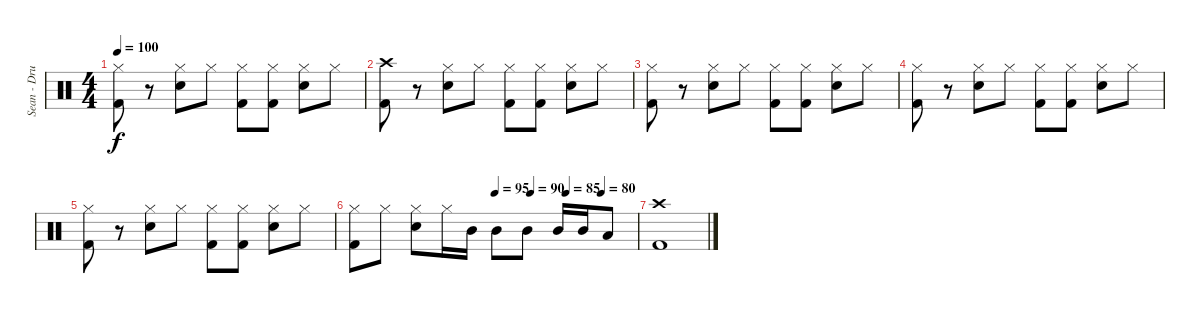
\track ("Sean - Drums" "Sean - Dru") {instrument percussion}
\staff {score}
\articulation defaults
\ts (4 4)
\tempo 100
\clef neutral
\ks c
("Hi-Hat (closed)" "Kick (hit) 2").8{dy f} r.8 ("Hi-Hat (closed)" "Electric Snare (hit)").8 "Hi-Hat (closed)".8 ("Hi-Hat (closed)" "Kick (hit) 2").8 ("Hi-Hat (closed)" "Kick (hit) 2").8 ("Hi-Hat (closed)" "Electric Snare (hit)").8 "Hi-Hat (closed)".8 |
("Crash high (hit)" "Kick (hit) 2").8 r.8 ("Hi-Hat (closed)" "Electric Snare (hit)").8 "Hi-Hat (closed)".8 ("Hi-Hat (closed)" "Kick (hit) 2").8 ("Hi-Hat (closed)" "Kick (hit) 2").8 ("Hi-Hat (closed)" "Electric Snare (hit)").8 "Hi-Hat (closed)".8 |
("Hi-Hat (closed)" "Kick (hit) 2").8 r.8 ("Hi-Hat (closed)" "Electric Snare (hit)").8 "Hi-Hat (closed)".8 ("Hi-Hat (closed)" "Kick (hit) 2").8 ("Hi-Hat (closed)" "Kick (hit) 2").8 ("Hi-Hat (closed)" "Electric Snare (hit)").8 "Hi-Hat (closed)".8 |
("Hi-Hat (closed)" "Kick (hit) 2").8 r.8 ("Hi-Hat (closed)" "Electric Snare (hit)").8 "Hi-Hat (closed)".8 ("Hi-Hat (closed)" "Kick (hit) 2").8 ("Hi-Hat (closed)" "Kick (hit) 2").8 ("Hi-Hat (closed)" "Electric Snare (hit)").8 "Hi-Hat (closed)".8 |
("Hi-Hat (closed)" "Kick (hit) 2").8 r.8 ("Hi-Hat (closed)" "Electric Snare (hit)").8 "Hi-Hat (closed)".8 ("Hi-Hat (closed)" "Kick (hit) 2").8 ("Hi-Hat (closed)" "Kick (hit) 2").8 ("Hi-Hat (closed)" "Electric Snare (hit)").8 "Hi-Hat (closed)".8 |
\tempo (95 0.5)
\tempo (90 0.625)
\tempo (85 0.75)
\tempo (80 0.875)
("Hi-Hat (closed)" "Kick (hit) 2").8 "Hi-Hat (closed)".8 ("Hi-Hat (closed)" "Electric Snare (hit)").8 "Hi-Hat (closed)".16 "Mid Tom (hit)".16 "Mid Tom (hit)".8 "Mid Tom (hit)".8 "Mid Tom (hit)".16 "Mid Tom (hit)".16 "Low Tom (hit)".8 |
("Crash high (hit)" "Kick (hit) 2").1
